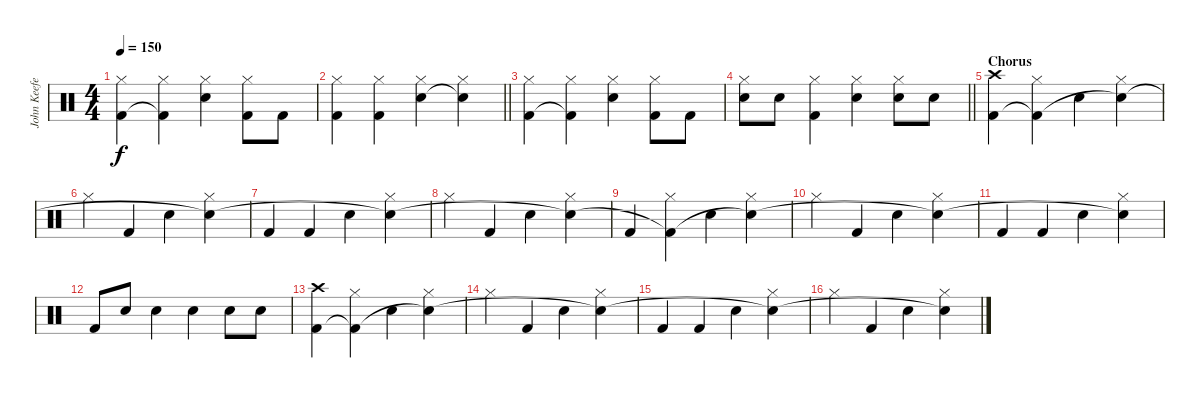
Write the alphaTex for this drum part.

\track ("John Keefe (Percussion)" "John Keefe") {instrument percussion}
\staff {score}
\articulation defaults
\ts (4 4)
\tempo 150
\clef neutral
\ks c
("Hi-Hat (closed)" "Kick (hit) 2").4{dy f} ("Hi-Hat (closed)" "Kick (hit) 2"{t}).4 ("Hi-Hat (closed)" "Snare (hit) 2").4 ("Hi-Hat (closed)" "Kick (hit) 2").8 "Kick (hit) 2".8 |
\barLineRight lightlight
("Hi-Hat (closed)" "Kick (hit) 2").4 ("Hi-Hat (closed)" "Kick (hit) 2").4 ("Hi-Hat (closed)" "Snare (hit) 2").4 ("Hi-Hat (closed)" "Snare (hit) 2"{t}).4 |
("Hi-Hat (closed)" "Kick (hit) 2").4 ("Hi-Hat (closed)" "Kick (hit) 2"{t}).4 ("Hi-Hat (closed)" "Snare (hit) 2").4 ("Hi-Hat (closed)" "Kick (hit) 2").8 "Kick (hit) 2".8 |
\barLineRight lightlight
("Hi-Hat (closed)" "Snare (hit) 2").8 "Snare (hit) 2".8 ("Hi-Hat (closed)" "Kick (hit) 2").4 ("Hi-Hat (closed)" "Snare (hit) 2").4 ("Hi-Hat (closed)" "Snare (hit) 2").8 "Snare (hit) 2".8 |
\section ("" "Chorus")
("Crash high (hit)" "Kick (hit) 2").4 ("Hi-Hat (closed)" "Kick (hit) 2"{t}).4 "Snare (hit) 2".4 ("Hi-Hat (closed)" "Snare (hit) 2"{t}).4 |
"Hi-Hat (closed)".4 "Kick (hit) 2".4 "Snare (hit) 2".4 ("Hi-Hat (closed)" "Snare (hit) 2"{t}).4 |
"Kick (hit) 2".4 "Kick (hit) 2".4 "Snare (hit) 2".4 ("Hi-Hat (closed)" "Snare (hit) 2"{t}).4 |
"Hi-Hat (closed)".4 "Kick (hit) 2".4 "Snare (hit) 2".4 ("Hi-Hat (closed)" "Snare (hit) 2"{t}).4 |
"Kick (hit) 2".4 ("Hi-Hat (closed)" "Kick (hit) 2"{t}).4 "Snare (hit) 2".4 ("Hi-Hat (closed)" "Snare (hit) 2"{t}).4 |
"Hi-Hat (closed)".4 "Kick (hit) 2".4 "Snare (hit) 2".4 ("Hi-Hat (closed)" "Snare (hit) 2"{t}).4 |
"Kick (hit) 2".4 "Kick (hit) 2".4 "Snare (hit) 2".4 ("Hi-Hat (closed)" "Snare (hit) 2"{t}).4 |
"Kick (hit) 2".8 "Snare (hit) 2".8 "Snare (hit) 2".4 "Snare (hit) 2".4 "Snare (hit) 2".8 "Snare (hit) 2".8 |
("Crash high (hit)" "Kick (hit) 2").4 ("Hi-Hat (closed)" "Kick (hit) 2"{t}).4 "Snare (hit) 2".4 ("Hi-Hat (closed)" "Snare (hit) 2"{t}).4 |
"Hi-Hat (closed)".4 "Kick (hit) 2".4 "Snare (hit) 2".4 ("Hi-Hat (closed)" "Snare (hit) 2"{t}).4 |
"Kick (hit) 2".4 "Kick (hit) 2".4 "Snare (hit) 2".4 ("Hi-Hat (closed)" "Snare (hit) 2"{t}).4 |
"Hi-Hat (closed)".4 "Kick (hit) 2".4 "Snare (hit) 2".4 ("Hi-Hat (closed)" "Snare (hit) 2"{t}).4
